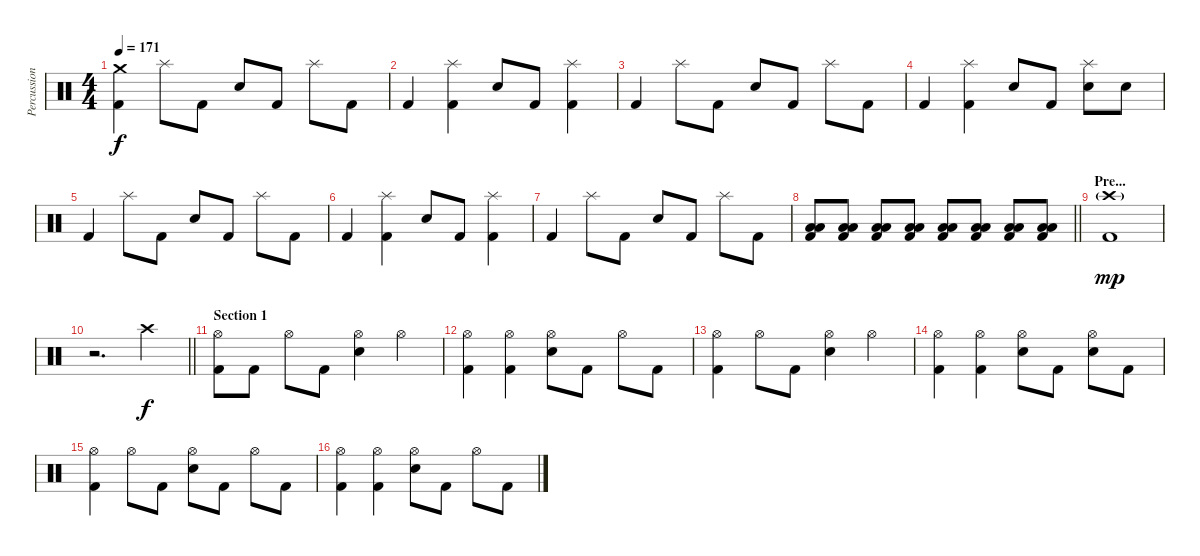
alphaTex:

\track ("Percussion" "Percussion") {instrument percussion}
\staff {score}
\articulation defaults
\ts (4 4)
\tempo 171
\clef neutral
\ks c
("Crash medium (hit)" "Kick (hit) 2").4{dy f} "Splash (hit)".8 "Kick (hit) 2".8 "Snare (hit) 2".8 "Kick (hit) 2".8 "Splash (hit)".8 "Kick (hit) 2".8 |
"Kick (hit) 2".4 ("Splash (hit)" "Kick (hit) 2").4 "Snare (hit) 2".8 "Kick (hit) 2".8 ("Splash (hit)" "Kick (hit) 2").4 |
"Kick (hit) 2".4 "Splash (hit)".8 "Kick (hit) 2".8 "Snare (hit) 2".8 "Kick (hit) 2".8 "Splash (hit)".8 "Kick (hit) 2".8 |
"Kick (hit) 2".4 ("Splash (hit)" "Kick (hit) 2").4 "Snare (hit) 2".8 "Kick (hit) 2".8 ("Splash (hit)" "Snare (hit) 2").8 "Snare (hit) 2".8 |
"Kick (hit) 2".4 "Splash (hit)".8 "Kick (hit) 2".8 "Snare (hit) 2".8 "Kick (hit) 2".8 "Splash (hit)".8 "Kick (hit) 2".8 |
"Kick (hit) 2".4 ("Splash (hit)" "Kick (hit) 2").4 "Snare (hit) 2".8 "Kick (hit) 2".8 ("Splash (hit)" "Kick (hit) 2").4 |
"Kick (hit) 2".4 "Splash (hit)".8 "Kick (hit) 2".8 "Snare (hit) 2".8 "Kick (hit) 2".8 "Splash (hit)".8 "Kick (hit) 2".8 |
\barLineRight lightlight
("Low Floor Tom (hit)" "Low Floor Tom (hit)" "Kick (hit) 2").8 ("Low Floor Tom (hit)" "Low Floor Tom (hit)" "Kick (hit) 2").8 ("Low Floor Tom (hit)" "Low Floor Tom (hit)" "Kick (hit) 2").8 ("Low Floor Tom (hit)" "Low Floor Tom (hit)" "Kick (hit) 2").8 ("Low Floor Tom (hit)" "Low Floor Tom (hit)" "Kick (hit) 2").8 ("Low Floor Tom (hit)" "Low Floor Tom (hit)" "Kick (hit) 2").8 ("Low Floor Tom (hit)" "Low Floor Tom (hit)" "Kick (hit) 2").8 ("Low Floor Tom (hit)" "Low Floor Tom (hit)" "Kick (hit) 2").8 |
\section ("" "Pre...")
("Crash high (hit)"{g} "Kick (hit) 2").1{dy mp} |
\barLineRight lightlight
r.2{d} "Crash high (hit)".4{dy f} |
\section ("" "Section 1")
("Hi-Hat (open)" "Kick (hit) 2").8 "Kick (hit) 2".8 "Hi-Hat (open)".8 "Kick (hit) 2".8 ("Hi-Hat (open)" "Snare (hit) 2").4 "Hi-Hat (open)".4 |
("Hi-Hat (open)" "Kick (hit) 2").4 ("Hi-Hat (open)" "Kick (hit) 2").4 ("Hi-Hat (open)" "Snare (hit) 2").8 "Kick (hit) 2".8 "Hi-Hat (open)".8 "Kick (hit) 2".8 |
("Hi-Hat (open)" "Kick (hit) 2").4 "Hi-Hat (open)".8 "Kick (hit) 2".8 ("Hi-Hat (open)" "Snare (hit) 2").4 "Hi-Hat (open)".4 |
("Hi-Hat (open)" "Kick (hit) 2").4 ("Hi-Hat (open)" "Kick (hit) 2").4 ("Hi-Hat (open)" "Snare (hit) 2").8 "Kick (hit) 2".8 ("Hi-Hat (open)" "Snare (hit) 2").8 "Kick (hit) 2".8 |
("Hi-Hat (open)" "Kick (hit) 2").4 "Hi-Hat (open)".8 "Kick (hit) 2".8 ("Hi-Hat (open)" "Snare (hit) 2").8 "Kick (hit) 2".8 "Hi-Hat (open)".8 "Kick (hit) 2".8 |
("Hi-Hat (open)" "Kick (hit) 2").4 ("Hi-Hat (open)" "Kick (hit) 2").4 ("Hi-Hat (open)" "Snare (hit) 2").8 "Kick (hit) 2".8 "Hi-Hat (open)".8 "Kick (hit) 2".8
